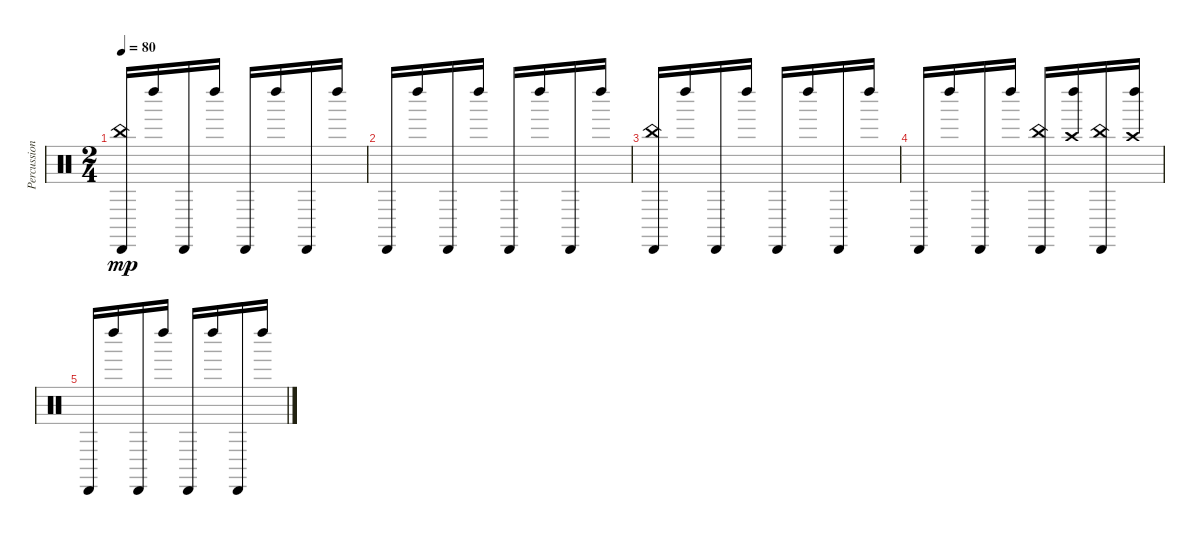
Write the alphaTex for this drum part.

\track ("Percussions" "Percussion") {instrument percussion}
\staff {score}
\articulation defaults
\ts (2 4)
\tempo 80
\clef neutral
\ks c
("Cabasa (hit)" "China (hit)").16{dy mp} "Left Maraca (hit)".16 "Cabasa (hit)".16 "Left Maraca (hit)".16 "Cabasa (hit)".16 "Left Maraca (hit)".16 "Cabasa (hit)".16 "Left Maraca (hit)".16 |
"Cabasa (hit)".16 "Left Maraca (hit)".16 "Cabasa (hit)".16 "Left Maraca (hit)".16 "Cabasa (hit)".16 "Left Maraca (hit)".16 "Cabasa (hit)".16 "Left Maraca (hit)".16 |
("Cabasa (hit)" "China (hit)").16 "Left Maraca (hit)".16 "Cabasa (hit)".16 "Left Maraca (hit)".16 "Cabasa (hit)".16 "Left Maraca (hit)".16 "Cabasa (hit)".16 "Left Maraca (hit)".16 |
"Cabasa (hit)".16 "Left Maraca (hit)".16 "Cabasa (hit)".16 "Left Maraca (hit)".16 ("Cabasa (hit)" "China (hit)").16 ("Left Maraca (hit)" "Crash high (hit)").16 ("Cabasa (hit)" "China (hit)").16 ("Left Maraca (hit)" "Crash high (hit)").16 |
"Cabasa (hit)".16 "Left Maraca (hit)".16 "Cabasa (hit)".16 "Left Maraca (hit)".16 "Cabasa (hit)".16 "Left Maraca (hit)".16 "Cabasa (hit)".16 "Left Maraca (hit)".16
